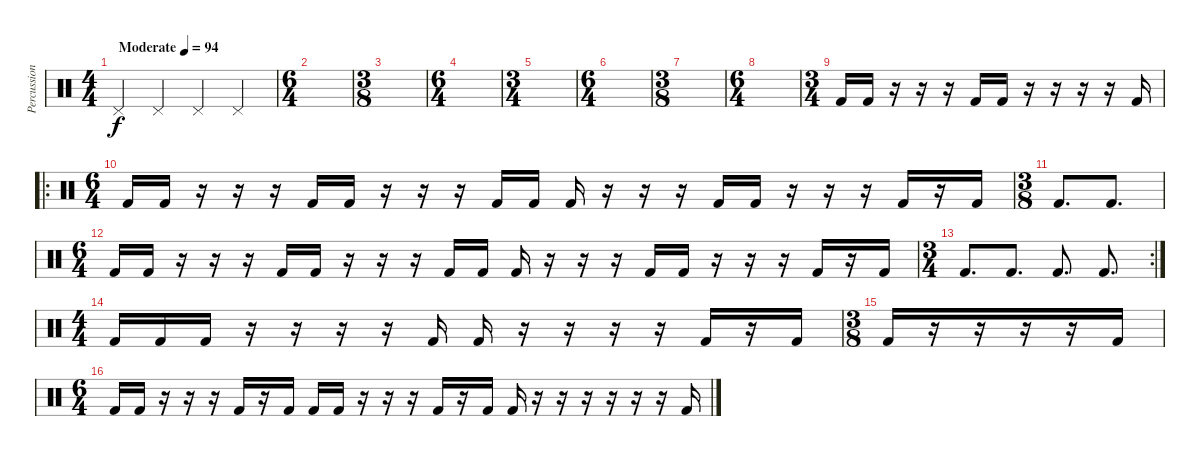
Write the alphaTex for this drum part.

\track ("Percussion" "Percussion") {instrument percussion}
\staff {score}
\articulation defaults
\ts (4 4)
\tempo (94 "Moderate")
\clef neutral
\ks c "Pedal Hi-Hat (hit)".4{dy f} "Pedal Hi-Hat (hit)".4 "Pedal Hi-Hat (hit)".4 "Pedal Hi-Hat (hit)".4
|
\ts (6 4)
|
\ts (3 8)
|
\ts (6 4)
|
\ts (3 4)
|
\ts (6 4)
|
\ts (3 8)
|
\ts (6 4)
|
\ts (3 4)
"Kick (hit) 2".16 "Kick (hit) 2".16 r.16 r.16 r.16 "Kick (hit) 2".16 "Kick (hit) 2".16 r.16 r.16 r.16 r.16 "Kick (hit) 2".16 |
\ro
\ts (6 4)
"Kick (hit) 2".16 "Kick (hit) 2".16 r.16 r.16 r.16 "Kick (hit) 2".16 "Kick (hit) 2".16 r.16 r.16 r.16 "Kick (hit) 2".16 "Kick (hit) 2".16 "Kick (hit) 2".16 r.16 r.16 r.16 "Kick (hit) 2".16 "Kick (hit) 2".16 r.16 r.16 r.16 "Kick (hit) 2".16 r.16 "Kick (hit) 2".16 |
\ts (3 8)
"Kick (hit) 2".8{d} "Kick (hit) 2".8{d} |
\ts (6 4)
"Kick (hit) 2".16 "Kick (hit) 2".16 r.16 r.16 r.16 "Kick (hit) 2".16 "Kick (hit) 2".16 r.16 r.16 r.16 "Kick (hit) 2".16 "Kick (hit) 2".16 "Kick (hit) 2".16 r.16 r.16 r.16 "Kick (hit) 2".16 "Kick (hit) 2".16 r.16 r.16 r.16 "Kick (hit) 2".16 r.16 "Kick (hit) 2".16 |
\rc 2
\ts (3 4)
"Kick (hit) 2".8{d} "Kick (hit) 2".8{d} "Kick (hit) 2".8{d} "Kick (hit) 2".8{d} |
\ts (4 4)
"Kick (hit) 2".16 "Kick (hit) 2".16 "Kick (hit) 2".16 r.16 r.16 r.16 r.16 "Kick (hit) 2".16 "Kick (hit) 2".16 r.16 r.16 r.16 r.16 "Kick (hit) 2".16 r.16 "Kick (hit) 2".16 |
\ts (3 8)
"Kick (hit) 2".16 r.16 r.16 r.16 r.16 "Kick (hit) 2".16 |
\ts (6 4)
"Kick (hit) 2".16 "Kick (hit) 2".16 r.16 r.16 r.16 "Kick (hit) 2".16 r.16 "Kick (hit) 2".16 "Kick (hit) 2".16 "Kick (hit) 2".16 r.16 r.16 r.16 "Kick (hit) 2".16 r.16 "Kick (hit) 2".16 "Kick (hit) 2".16 r.16 r.16 r.16 r.16 r.16 r.16 "Kick (hit) 2".16
